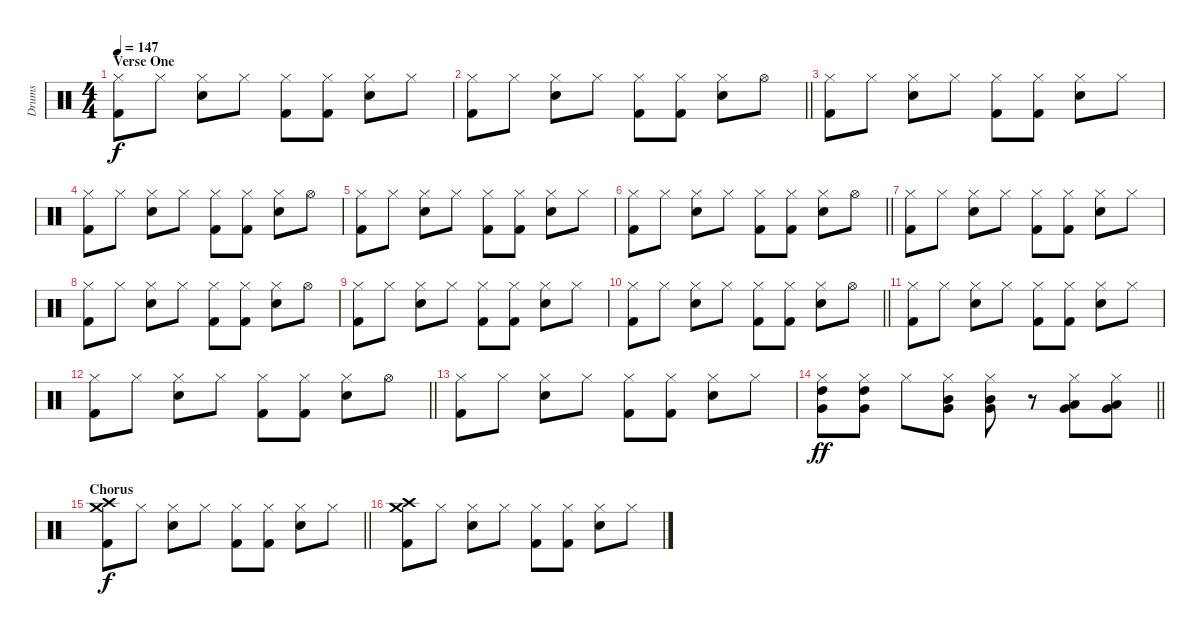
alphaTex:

\track ("Drums" "Drums") {instrument percussion}
\staff {score}
\articulation defaults
\ts (4 4)
\section ("" "Verse One")
\tempo 147
\clef neutral
\ks c
("Hi-Hat (closed)" "Kick (hit) 2").8{dy f} "Hi-Hat (closed)".8 ("Hi-Hat (closed)" "Electric Snare (hit)").8 "Hi-Hat (closed)".8 ("Hi-Hat (closed)" "Kick (hit) 2").8 ("Hi-Hat (closed)" "Kick (hit) 2").8 ("Hi-Hat (closed)" "Electric Snare (hit)").8 "Hi-Hat (closed)".8 |
\barLineRight lightlight
("Hi-Hat (closed)" "Kick (hit) 2").8 "Hi-Hat (closed)".8 ("Hi-Hat (closed)" "Electric Snare (hit)").8 "Hi-Hat (closed)".8 ("Hi-Hat (closed)" "Kick (hit) 2").8 ("Hi-Hat (closed)" "Kick (hit) 2").8 ("Hi-Hat (closed)" "Electric Snare (hit)").8 "Hi-Hat (open)".8 |
("Hi-Hat (closed)" "Kick (hit) 2").8 "Hi-Hat (closed)".8 ("Hi-Hat (closed)" "Electric Snare (hit)").8 "Hi-Hat (closed)".8 ("Hi-Hat (closed)" "Kick (hit) 2").8 ("Hi-Hat (closed)" "Kick (hit) 2").8 ("Hi-Hat (closed)" "Electric Snare (hit)").8 "Hi-Hat (closed)".8 |
("Hi-Hat (closed)" "Kick (hit) 2").8 "Hi-Hat (closed)".8 ("Hi-Hat (closed)" "Electric Snare (hit)").8 "Hi-Hat (closed)".8 ("Hi-Hat (closed)" "Kick (hit) 2").8 ("Hi-Hat (closed)" "Kick (hit) 2").8 ("Hi-Hat (closed)" "Electric Snare (hit)").8 "Hi-Hat (open)".8 |
("Hi-Hat (closed)" "Kick (hit) 2").8 "Hi-Hat (closed)".8 ("Hi-Hat (closed)" "Electric Snare (hit)").8 "Hi-Hat (closed)".8 ("Hi-Hat (closed)" "Kick (hit) 2").8 ("Hi-Hat (closed)" "Kick (hit) 2").8 ("Hi-Hat (closed)" "Electric Snare (hit)").8 "Hi-Hat (closed)".8 |
\barLineRight lightlight
("Hi-Hat (closed)" "Kick (hit) 2").8 "Hi-Hat (closed)".8 ("Hi-Hat (closed)" "Electric Snare (hit)").8 "Hi-Hat (closed)".8 ("Hi-Hat (closed)" "Kick (hit) 2").8 ("Hi-Hat (closed)" "Kick (hit) 2").8 ("Hi-Hat (closed)" "Electric Snare (hit)").8 "Hi-Hat (open)".8 |
("Hi-Hat (closed)" "Kick (hit) 2").8 "Hi-Hat (closed)".8 ("Hi-Hat (closed)" "Electric Snare (hit)").8 "Hi-Hat (closed)".8 ("Hi-Hat (closed)" "Kick (hit) 2").8 ("Hi-Hat (closed)" "Kick (hit) 2").8 ("Hi-Hat (closed)" "Electric Snare (hit)").8 "Hi-Hat (closed)".8 |
("Hi-Hat (closed)" "Kick (hit) 2").8 "Hi-Hat (closed)".8 ("Hi-Hat (closed)" "Electric Snare (hit)").8 "Hi-Hat (closed)".8 ("Hi-Hat (closed)" "Kick (hit) 2").8 ("Hi-Hat (closed)" "Kick (hit) 2").8 ("Hi-Hat (closed)" "Electric Snare (hit)").8 "Hi-Hat (open)".8 |
("Hi-Hat (closed)" "Kick (hit) 2").8 "Hi-Hat (closed)".8 ("Hi-Hat (closed)" "Electric Snare (hit)").8 "Hi-Hat (closed)".8 ("Hi-Hat (closed)" "Kick (hit) 2").8 ("Hi-Hat (closed)" "Kick (hit) 2").8 ("Hi-Hat (closed)" "Electric Snare (hit)").8 "Hi-Hat (closed)".8 |
\barLineRight lightlight
("Hi-Hat (closed)" "Kick (hit) 2").8 "Hi-Hat (closed)".8 ("Hi-Hat (closed)" "Electric Snare (hit)").8 "Hi-Hat (closed)".8 ("Hi-Hat (closed)" "Kick (hit) 2").8 ("Hi-Hat (closed)" "Kick (hit) 2").8 ("Hi-Hat (closed)" "Electric Snare (hit)").8 "Hi-Hat (open)".8 |
("Hi-Hat (closed)" "Kick (hit) 2").8 "Hi-Hat (closed)".8 ("Hi-Hat (closed)" "Electric Snare (hit)").8 "Hi-Hat (closed)".8 ("Hi-Hat (closed)" "Kick (hit) 2").8 ("Hi-Hat (closed)" "Kick (hit) 2").8 ("Hi-Hat (closed)" "Electric Snare (hit)").8 "Hi-Hat (closed)".8 |
\barLineRight lightlight
("Hi-Hat (closed)" "Kick (hit) 2").8 "Hi-Hat (closed)".8 ("Hi-Hat (closed)" "Electric Snare (hit)").8 "Hi-Hat (closed)".8 ("Hi-Hat (closed)" "Kick (hit) 2").8 ("Hi-Hat (closed)" "Kick (hit) 2").8 ("Hi-Hat (closed)" "Electric Snare (hit)").8 "Hi-Hat (open)".8 |
("Hi-Hat (closed)" "Kick (hit) 2").8 "Hi-Hat (closed)".8 ("Hi-Hat (closed)" "Electric Snare (hit)").8 "Hi-Hat (closed)".8 ("Hi-Hat (closed)" "Kick (hit) 2").8 ("Hi-Hat (closed)" "Kick (hit) 2").8 ("Hi-Hat (closed)" "Electric Snare (hit)").8 "Hi-Hat (closed)".8 |
\barLineRight lightlight
("Hi-Hat (closed)" "High Tom (hit)" "Very Low Tom (hit)").8{dy ff} ("Hi-Hat (closed)" "High Tom (hit)" "Very Low Tom (hit)").8 "Hi-Hat (closed)".8 ("Hi-Hat (closed)" "Mid Tom (hit)" "Very Low Tom (hit)").8 ("Hi-Hat (closed)" "Mid Tom (hit)" "Very Low Tom (hit)").8 r.8 ("Hi-Hat (closed)" "Low Tom (hit)" "Very Low Tom (hit)").8 ("Hi-Hat (closed)" "Low Tom (hit)" "Very Low Tom (hit)").8 |
\section ("" "Chorus")
\barLineRight lightlight
("Crash medium (hit)" "Crash high (hit)" "Kick (hit) 2").8{dy f} "Hi-Hat (closed)".8 ("Hi-Hat (closed)" "Electric Snare (hit)").8 "Hi-Hat (closed)".8 ("Hi-Hat (closed)" "Kick (hit) 2").8 ("Hi-Hat (closed)" "Kick (hit) 2").8 ("Hi-Hat (closed)" "Electric Snare (hit)").8 "Hi-Hat (closed)".8 |
("Crash medium (hit)" "Crash high (hit)" "Kick (hit) 2").8 "Hi-Hat (closed)".8 ("Hi-Hat (closed)" "Electric Snare (hit)").8 "Hi-Hat (closed)".8 ("Hi-Hat (closed)" "Kick (hit) 2").8 ("Hi-Hat (closed)" "Kick (hit) 2").8 ("Hi-Hat (closed)" "Electric Snare (hit)").8 "Hi-Hat (closed)".8
